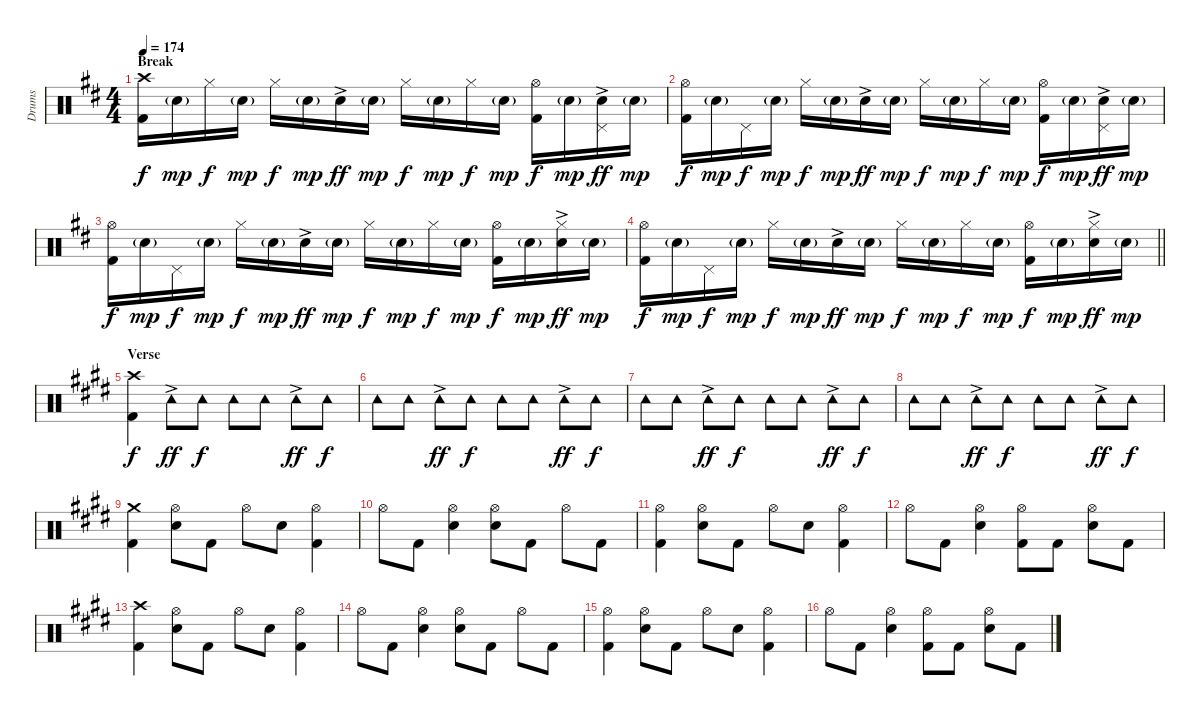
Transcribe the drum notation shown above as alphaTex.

\track ("Drums" "Drums") {instrument percussion bank 177}
\staff {score}
\articulation defaults
\ts (4 4)
\section ("" "Break")
\tempo 174
\clef neutral
\ks d
("Crash high (hit)" "Kick (hit) 2").16{dy f} "Electric Snare (hit)"{g}.16{dy mp} "Hi-Hat (closed)".16{dy f} "Electric Snare (hit)"{g}.16{dy mp} "Hi-Hat (closed)".16{dy f} "Electric Snare (hit)"{g}.16{dy mp} "Electric Snare (hit)"{ac}.16{dy ff} "Electric Snare (hit)"{g}.16{dy mp} "Hi-Hat (closed)".16{dy f} "Electric Snare (hit)"{g}.16{dy mp} "Hi-Hat (closed)".16{dy f} "Electric Snare (hit)"{g}.16{dy mp} ("Hi-Hat (open)" "Kick (hit) 2").16{dy f} "Electric Snare (hit)"{g}.16{dy mp} ("Pedal Hi-Hat (hit)" "Electric Snare (hit)"{ac}).16{dy ff} "Electric Snare (hit)"{g}.16{dy mp} |
("Hi-Hat (open)" "Kick (hit) 2").16{dy f} "Electric Snare (hit)"{g}.16{dy mp} "Pedal Hi-Hat (hit)".16{dy f} "Electric Snare (hit)"{g}.16{dy mp} "Hi-Hat (closed)".16{dy f} "Electric Snare (hit)"{g}.16{dy mp} "Electric Snare (hit)"{ac}.16{dy ff} "Electric Snare (hit)"{g}.16{dy mp} "Hi-Hat (closed)".16{dy f} "Electric Snare (hit)"{g}.16{dy mp} "Hi-Hat (closed)".16{dy f} "Electric Snare (hit)"{g}.16{dy mp} ("Hi-Hat (open)" "Kick (hit) 2").16{dy f} "Electric Snare (hit)"{g}.16{dy mp} ("Pedal Hi-Hat (hit)" "Electric Snare (hit)"{ac}).16{dy ff} "Electric Snare (hit)"{g}.16{dy mp} |
("Hi-Hat (open)" "Kick (hit) 2").16{dy f} "Electric Snare (hit)"{g}.16{dy mp} "Pedal Hi-Hat (hit)".16{dy f} "Electric Snare (hit)"{g}.16{dy mp} "Hi-Hat (closed)".16{dy f} "Electric Snare (hit)"{g}.16{dy mp} "Electric Snare (hit)"{ac}.16{dy ff} "Electric Snare (hit)"{g}.16{dy mp} "Hi-Hat (closed)".16{dy f} "Electric Snare (hit)"{g}.16{dy mp} "Hi-Hat (closed)".16{dy f} "Electric Snare (hit)"{g}.16{dy mp} ("Hi-Hat (open)" "Kick (hit) 2").16{dy f} "Electric Snare (hit)"{g}.16{dy mp} ("Hi-Hat (closed)" "Electric Snare (hit)"{ac}).16{dy ff} "Electric Snare (hit)"{g}.16{dy mp} |
\barLineRight lightlight
("Hi-Hat (open)" "Kick (hit) 2").16{dy f} "Electric Snare (hit)"{g}.16{dy mp} "Pedal Hi-Hat (hit)".16{dy f} "Electric Snare (hit)"{g}.16{dy mp} "Hi-Hat (closed)".16{dy f} "Electric Snare (hit)"{g}.16{dy mp} "Electric Snare (hit)"{ac}.16{dy ff} "Electric Snare (hit)"{g}.16{dy mp} "Hi-Hat (closed)".16{dy f} "Electric Snare (hit)"{g}.16{dy mp} "Hi-Hat (closed)".16{dy f} "Electric Snare (hit)"{g}.16{dy mp} ("Hi-Hat (open)" "Kick (hit) 2").16{dy f} "Electric Snare (hit)"{g}.16{dy mp} ("Hi-Hat (closed)" "Electric Snare (hit)"{ac}).16{dy ff} "Electric Snare (hit)"{g}.16{dy mp} |
\section ("" "Verse")
\ks e
("Crash high (hit)" "Kick (hit) 2").4{dy f} "Tambourine (hit)"{ac}.8{dy ff} "Tambourine (hit)".8{dy f} "Tambourine (hit)".8 "Tambourine (hit)".8 "Tambourine (hit)"{ac}.8{dy ff} "Tambourine (hit)".8{dy f} |
"Tambourine (hit)".8 "Tambourine (hit)".8 "Tambourine (hit)"{ac}.8{dy ff} "Tambourine (hit)".8{dy f} "Tambourine (hit)".8 "Tambourine (hit)".8 "Tambourine (hit)"{ac}.8{dy ff} "Tambourine (hit)".8{dy f} |
"Tambourine (hit)".8 "Tambourine (hit)".8 "Tambourine (hit)"{ac}.8{dy ff} "Tambourine (hit)".8{dy f} "Tambourine (hit)".8 "Tambourine (hit)".8 "Tambourine (hit)"{ac}.8{dy ff} "Tambourine (hit)".8{dy f} |
"Tambourine (hit)".8 "Tambourine (hit)".8 "Tambourine (hit)"{ac}.8{dy ff} "Tambourine (hit)".8{dy f} "Tambourine (hit)".8 "Tambourine (hit)".8 "Tambourine (hit)"{ac}.8{dy ff} "Tambourine (hit)".8{dy f} |
("Crash medium (hit)" "Kick (hit) 2").4 ("Hi-Hat (open)" "Electric Snare (hit)").8 "Kick (hit) 2".8 "Hi-Hat (open)".8 "Electric Snare (hit)".8 ("Hi-Hat (open)" "Kick (hit) 2").4 |
"Hi-Hat (open)".8 "Kick (hit) 2".8 ("Hi-Hat (open)" "Electric Snare (hit)").4 ("Hi-Hat (open)" "Electric Snare (hit)").8 "Kick (hit) 2".8 "Hi-Hat (open)".8 "Kick (hit) 2".8 |
("Hi-Hat (open)" "Kick (hit) 2").4 ("Hi-Hat (open)" "Electric Snare (hit)").8 "Kick (hit) 2".8 "Hi-Hat (open)".8 "Electric Snare (hit)".8 ("Hi-Hat (open)" "Kick (hit) 2").4 |
"Hi-Hat (open)".8 "Kick (hit) 2".8 ("Hi-Hat (open)" "Electric Snare (hit)").4 ("Hi-Hat (open)" "Kick (hit) 2").8 "Kick (hit) 2".8 ("Hi-Hat (open)" "Electric Snare (hit)").8 "Kick (hit) 2".8 |
("Crash high (hit)" "Kick (hit) 2").4 ("Hi-Hat (open)" "Electric Snare (hit)").8 "Kick (hit) 2".8 "Hi-Hat (open)".8 "Electric Snare (hit)".8 ("Hi-Hat (open)" "Kick (hit) 2").4 |
"Hi-Hat (open)".8 "Kick (hit) 2".8 ("Hi-Hat (open)" "Electric Snare (hit)").4 ("Hi-Hat (open)" "Electric Snare (hit)").8 "Kick (hit) 2".8 "Hi-Hat (open)".8 "Kick (hit) 2".8 |
("Hi-Hat (open)" "Kick (hit) 2").4 ("Hi-Hat (open)" "Electric Snare (hit)").8 "Kick (hit) 2".8 "Hi-Hat (open)".8 "Electric Snare (hit)".8 ("Hi-Hat (open)" "Kick (hit) 2").4 |
"Hi-Hat (open)".8 "Kick (hit) 2".8 ("Hi-Hat (open)" "Electric Snare (hit)").4 ("Hi-Hat (open)" "Kick (hit) 2").8 "Kick (hit) 2".8 ("Hi-Hat (open)" "Electric Snare (hit)").8 "Kick (hit) 2".8
